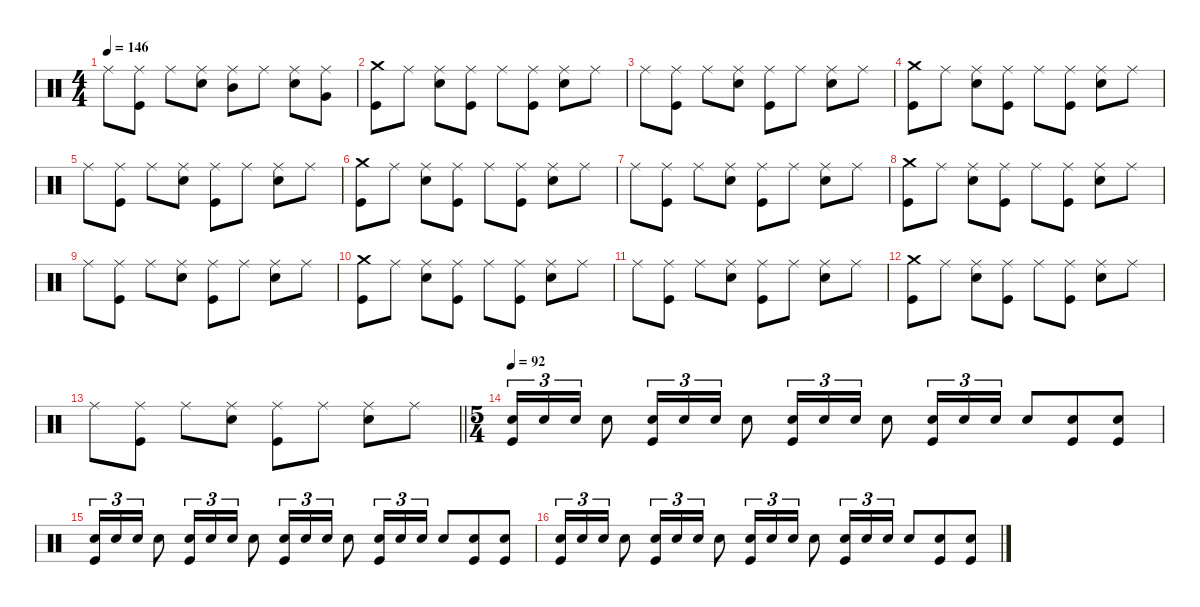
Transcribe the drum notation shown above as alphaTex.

\defaultSystemsLayout 4
\hideDynamics
\bracketExtendMode nobrackets
\singleTrackTrackNamePolicy hidden
\multiTrackTrackNamePolicy hidden
\firstSystemTrackNameMode fullname
\firstSystemTrackNameOrientation horizontal
\otherSystemsTrackNameOrientation horizontal
\track ("Drums" "drm.") {instrument percussion}
\staff {score}
\articulation defaults
\ts (4 4)
\tempo 146
\clef neutral
\ks c "Ride (middle)".8{dy f beam Down}
("Ride (middle)" "Kick (hit)").8{beam Down} "Ride (middle)".8{beam Down} ("Ride (middle)" "Snare (hit) 2").8{beam Down} ("Ride (middle)" "Mid Tom (hit)").8{beam Down} "Ride (middle)".8{beam Down} ("Ride (middle)" "Snare (hit) 2").8{beam Down} ("Ride (middle)" "Very Low Tom (hit)").8{beam Down} |
("Crash medium (hit)" "Kick (hit)").8{beam Down} "Ride (middle)".8{beam Down} ("Ride (middle)" "Snare (hit) 2").8{beam Down} ("Ride (middle)" "Kick (hit)").8{beam Down} "Ride (middle)".8{beam Down} ("Ride (middle)" "Kick (hit)").8{beam Down} ("Ride (middle)" "Snare (hit) 2").8{beam Down} "Ride (middle)".8{beam Down} |
"Ride (middle)".8{beam Down} ("Ride (middle)" "Kick (hit)").8{beam Down} "Ride (middle)".8{beam Down} ("Ride (middle)" "Snare (hit) 2").8{beam Down} ("Ride (middle)" "Kick (hit)").8{beam Down} "Ride (middle)".8{beam Down} ("Ride (middle)" "Snare (hit) 2").8{beam Down} "Ride (middle)".8{beam Down} |
("Crash medium (hit)" "Kick (hit)").8{beam Down} "Ride (middle)".8{beam Down} ("Ride (middle)" "Snare (hit) 2").8{beam Down} ("Ride (middle)" "Kick (hit)").8{beam Down} "Ride (middle)".8{beam Down} ("Ride (middle)" "Kick (hit)").8{beam Down} ("Ride (middle)" "Snare (hit) 2").8{beam Down} "Ride (middle)".8{beam Down} |
"Ride (middle)".8{beam Down} ("Ride (middle)" "Kick (hit)").8{beam Down} "Ride (middle)".8{beam Down} ("Ride (middle)" "Snare (hit) 2").8{beam Down} ("Ride (middle)" "Kick (hit)").8{beam Down} "Ride (middle)".8{beam Down} ("Ride (middle)" "Snare (hit) 2").8{beam Down} "Ride (middle)".8{beam Down} |
("Crash medium (hit)" "Kick (hit)").8{beam Down} "Ride (middle)".8{beam Down} ("Ride (middle)" "Snare (hit) 2").8{beam Down} ("Ride (middle)" "Kick (hit)").8{beam Down} "Ride (middle)".8{beam Down} ("Ride (middle)" "Kick (hit)").8{beam Down} ("Ride (middle)" "Snare (hit) 2").8{beam Down} "Ride (middle)".8{beam Down} |
"Ride (middle)".8{beam Down} ("Ride (middle)" "Kick (hit)").8{beam Down} "Ride (middle)".8{beam Down} ("Ride (middle)" "Snare (hit) 2").8{beam Down} ("Ride (middle)" "Kick (hit)").8{beam Down} "Ride (middle)".8{beam Down} ("Ride (middle)" "Snare (hit) 2").8{beam Down} "Ride (middle)".8{beam Down} |
("Crash medium (hit)" "Kick (hit)").8{beam Down} "Ride (middle)".8{beam Down} ("Ride (middle)" "Snare (hit) 2").8{beam Down} ("Ride (middle)" "Kick (hit)").8{beam Down} "Ride (middle)".8{beam Down} ("Ride (middle)" "Kick (hit)").8{beam Down} ("Ride (middle)" "Snare (hit) 2").8{beam Down} "Ride (middle)".8{beam Down} |
"Ride (middle)".8{beam Down} ("Ride (middle)" "Kick (hit)").8{beam Down} "Ride (middle)".8{beam Down} ("Ride (middle)" "Snare (hit) 2").8{beam Down} ("Ride (middle)" "Kick (hit)").8{beam Down} "Ride (middle)".8{beam Down} ("Ride (middle)" "Snare (hit) 2").8{beam Down} "Ride (middle)".8{beam Down} |
("Crash medium (hit)" "Kick (hit)").8{beam Down} "Ride (middle)".8{beam Down} ("Ride (middle)" "Snare (hit) 2").8{beam Down} ("Ride (middle)" "Kick (hit)").8{beam Down} "Ride (middle)".8{beam Down} ("Ride (middle)" "Kick (hit)").8{beam Down} ("Ride (middle)" "Snare (hit) 2").8{beam Down} "Ride (middle)".8{beam Down} |
"Ride (middle)".8{beam Down} ("Ride (middle)" "Kick (hit)").8{beam Down} "Ride (middle)".8{beam Down} ("Ride (middle)" "Snare (hit) 2").8{beam Down} ("Ride (middle)" "Kick (hit)").8{beam Down} "Ride (middle)".8{beam Down} ("Ride (middle)" "Snare (hit) 2").8{beam Down} "Ride (middle)".8{beam Down} |
("Crash medium (hit)" "Kick (hit)").8{beam Down} "Ride (middle)".8{beam Down} ("Ride (middle)" "Snare (hit) 2").8{beam Down} ("Ride (middle)" "Kick (hit)").8{beam Down} "Ride (middle)".8{beam Down} ("Ride (middle)" "Kick (hit)").8{beam Down} ("Ride (middle)" "Snare (hit) 2").8{beam Down} "Ride (middle)".8{beam Down} |
\barLineRight lightlight "Ride (middle)".8{beam Down}
("Ride (middle)" "Kick (hit)").8{beam Down} "Ride (middle)".8{beam Down} ("Ride (middle)" "Snare (hit) 2").8{beam Down} ("Ride (middle)" "Kick (hit)").8{beam Down} "Ride (middle)".8{beam Down} ("Ride (middle)" "Snare (hit) 2").8{beam Down} "Ride (middle)".8{beam Down} |
\ts (5 4)
\beaming (8 6 4)
\tempo 92
("Snare (hit) 2" "Kick (hit)").16{tu (3 2) beam Up} "Snare (hit) 2".16{tu (3 2) beam Up} "Snare (hit) 2".16{tu (3 2) beam Up} "Snare (hit) 2".8{beam Down} ("Snare (hit) 2" "Kick (hit)").16{tu (3 2) beam Up} "Snare (hit) 2".16{tu (3 2) beam Up} "Snare (hit) 2".16{tu (3 2) beam Up} "Snare (hit) 2".8{beam Down} ("Snare (hit) 2" "Kick (hit)").16{tu (3 2) beam Up} "Snare (hit) 2".16{tu (3 2) beam Up} "Snare (hit) 2".16{tu (3 2) beam Up} "Snare (hit) 2".8{beam Down} ("Snare (hit) 2" "Kick (hit)").16{tu (3 2) beam Up} "Snare (hit) 2".16{tu (3 2) beam Up} "Snare (hit) 2".16{tu (3 2) beam Up} "Snare (hit) 2".8{beam Up} ("Snare (hit) 2" "Kick (hit)").8{beam Up} ("Snare (hit) 2" "Kick (hit)").8{beam Up} |
("Snare (hit) 2" "Kick (hit)").16{tu (3 2) beam Up} "Snare (hit) 2".16{tu (3 2) beam Up} "Snare (hit) 2".16{tu (3 2) beam Up} "Snare (hit) 2".8{beam Down} ("Snare (hit) 2" "Kick (hit)").16{tu (3 2) beam Up} "Snare (hit) 2".16{tu (3 2) beam Up} "Snare (hit) 2".16{tu (3 2) beam Up} "Snare (hit) 2".8{beam Down} ("Snare (hit) 2" "Kick (hit)").16{tu (3 2) beam Up} "Snare (hit) 2".16{tu (3 2) beam Up} "Snare (hit) 2".16{tu (3 2) beam Up} "Snare (hit) 2".8{beam Down} ("Snare (hit) 2" "Kick (hit)").16{tu (3 2) beam Up} "Snare (hit) 2".16{tu (3 2) beam Up} "Snare (hit) 2".16{tu (3 2) beam Up} "Snare (hit) 2".8{beam Up} ("Snare (hit) 2" "Kick (hit)").8{beam Up} ("Snare (hit) 2" "Kick (hit)").8{beam Up} |
("Snare (hit) 2" "Kick (hit)").16{tu (3 2) beam Up} "Snare (hit) 2".16{tu (3 2) beam Up} "Snare (hit) 2".16{tu (3 2) beam Up} "Snare (hit) 2".8{beam Down} ("Snare (hit) 2" "Kick (hit)").16{tu (3 2) beam Up} "Snare (hit) 2".16{tu (3 2) beam Up} "Snare (hit) 2".16{tu (3 2) beam Up} "Snare (hit) 2".8{beam Down} ("Snare (hit) 2" "Kick (hit)").16{tu (3 2) beam Up} "Snare (hit) 2".16{tu (3 2) beam Up} "Snare (hit) 2".16{tu (3 2) beam Up} "Snare (hit) 2".8{beam Down} ("Snare (hit) 2" "Kick (hit)").16{tu (3 2) beam Up} "Snare (hit) 2".16{tu (3 2) beam Up} "Snare (hit) 2".16{tu (3 2) beam Up} "Snare (hit) 2".8{beam Up} ("Snare (hit) 2" "Kick (hit)").8{beam Up} ("Snare (hit) 2" "Kick (hit)").8{beam Up}
